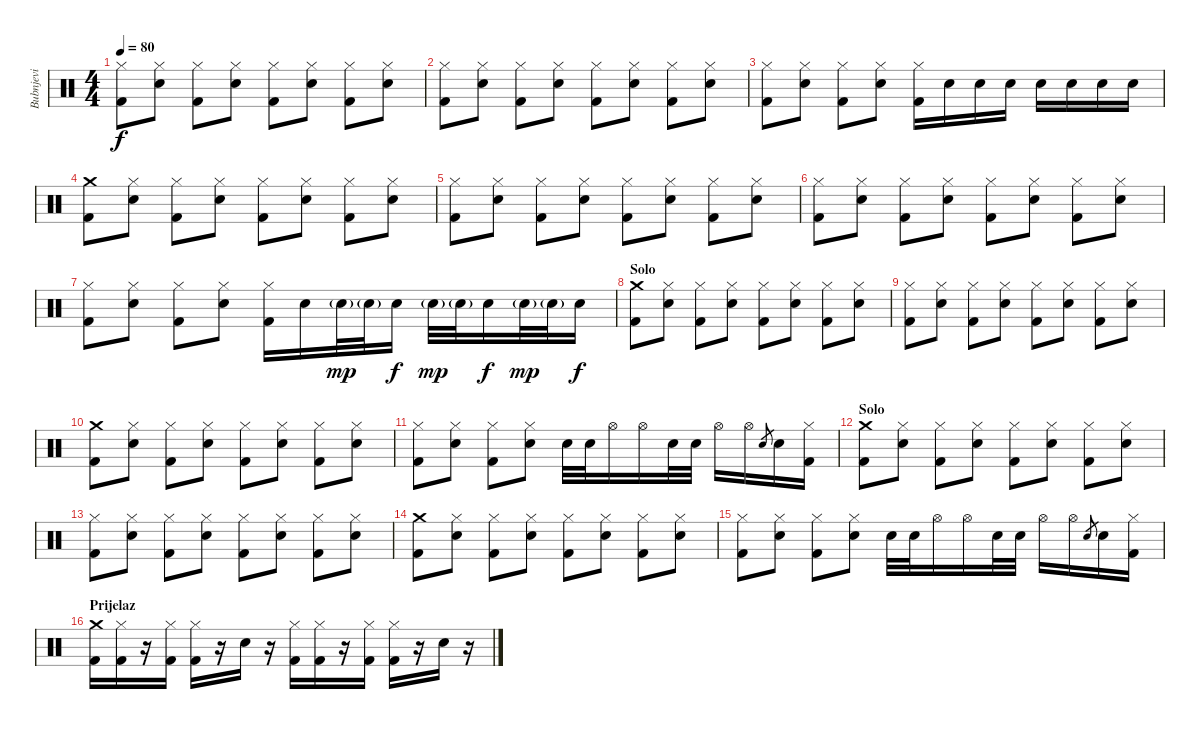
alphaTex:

\track ("Bubnjevi" "Bubnjevi") {instrument percussion}
\staff {score}
\articulation defaults
\ts (4 4)
\tempo 80
\clef neutral
\ks c
("Hi-Hat (closed)" "Kick (hit) 2").8{dy f} ("Electric Snare (hit)" "Hi-Hat (closed)").8 ("Hi-Hat (closed)" "Kick (hit) 2").8 ("Electric Snare (hit)" "Hi-Hat (closed)").8 ("Hi-Hat (closed)" "Kick (hit) 2").8 ("Electric Snare (hit)" "Hi-Hat (closed)").8 ("Hi-Hat (closed)" "Kick (hit) 2").8 ("Electric Snare (hit)" "Hi-Hat (closed)").8 |
("Hi-Hat (closed)" "Kick (hit) 2").8 ("Electric Snare (hit)" "Hi-Hat (closed)").8 ("Hi-Hat (closed)" "Kick (hit) 2").8 ("Electric Snare (hit)" "Hi-Hat (closed)").8 ("Hi-Hat (closed)" "Kick (hit) 2").8 ("Electric Snare (hit)" "Hi-Hat (closed)").8 ("Hi-Hat (closed)" "Kick (hit) 2").8 ("Electric Snare (hit)" "Hi-Hat (closed)").8 |
("Hi-Hat (closed)" "Kick (hit) 2").8 ("Electric Snare (hit)" "Hi-Hat (closed)").8 ("Hi-Hat (closed)" "Kick (hit) 2").8 ("Electric Snare (hit)" "Hi-Hat (closed)").8 ("Hi-Hat (closed)" "Kick (hit) 2").16 "Electric Snare (hit)".16 "Electric Snare (hit)".16 "Electric Snare (hit)".16 "Electric Snare (hit)".16 "Electric Snare (hit)".16 "Electric Snare (hit)".16 "Electric Snare (hit)".16 |
("Crash medium (hit)" "Kick (hit) 2").8 ("Electric Snare (hit)" "Hi-Hat (closed)").8 ("Hi-Hat (closed)" "Kick (hit) 2").8 ("Electric Snare (hit)" "Hi-Hat (closed)").8 ("Hi-Hat (closed)" "Kick (hit) 2").8 ("Electric Snare (hit)" "Hi-Hat (closed)").8 ("Hi-Hat (closed)" "Kick (hit) 2").8 ("Electric Snare (hit)" "Hi-Hat (closed)").8 |
("Hi-Hat (closed)" "Kick (hit) 2").8 ("Electric Snare (hit)" "Hi-Hat (closed)").8 ("Hi-Hat (closed)" "Kick (hit) 2").8 ("Electric Snare (hit)" "Hi-Hat (closed)").8 ("Hi-Hat (closed)" "Kick (hit) 2").8 ("Electric Snare (hit)" "Hi-Hat (closed)").8 ("Hi-Hat (closed)" "Kick (hit) 2").8 ("Electric Snare (hit)" "Hi-Hat (closed)").8 |
("Hi-Hat (closed)" "Kick (hit) 2").8 ("Electric Snare (hit)" "Hi-Hat (closed)").8 ("Hi-Hat (closed)" "Kick (hit) 2").8 ("Electric Snare (hit)" "Hi-Hat (closed)").8 ("Hi-Hat (closed)" "Kick (hit) 2").8 ("Electric Snare (hit)" "Hi-Hat (closed)").8 ("Hi-Hat (closed)" "Kick (hit) 2").8 ("Electric Snare (hit)" "Hi-Hat (closed)").8 |
("Hi-Hat (closed)" "Kick (hit) 2").8 ("Electric Snare (hit)" "Hi-Hat (closed)").8 ("Hi-Hat (closed)" "Kick (hit) 2").8 ("Electric Snare (hit)" "Hi-Hat (closed)").8 ("Hi-Hat (closed)" "Kick (hit) 2").16 "Electric Snare (hit)".16 "Electric Snare (hit)"{g}.32{dy mp} "Electric Snare (hit)"{g}.32 "Electric Snare (hit)".16{dy f} "Electric Snare (hit)"{g}.32{dy mp} "Electric Snare (hit)"{g}.32 "Electric Snare (hit)".16{dy f} "Electric Snare (hit)"{g}.32{dy mp} "Electric Snare (hit)"{g}.32 "Electric Snare (hit)".16{dy f} |
\section ("" "Solo")
("Crash medium (hit)" "Kick (hit) 2").8 ("Electric Snare (hit)" "Hi-Hat (closed)").8 ("Hi-Hat (closed)" "Kick (hit) 2").8 ("Electric Snare (hit)" "Hi-Hat (closed)").8 ("Hi-Hat (closed)" "Kick (hit) 2").8 ("Electric Snare (hit)" "Hi-Hat (closed)").8 ("Hi-Hat (closed)" "Kick (hit) 2").8 ("Electric Snare (hit)" "Hi-Hat (closed)").8 |
("Hi-Hat (closed)" "Kick (hit) 2").8 ("Electric Snare (hit)" "Hi-Hat (closed)").8 ("Hi-Hat (closed)" "Kick (hit) 2").8 ("Electric Snare (hit)" "Hi-Hat (closed)").8 ("Hi-Hat (closed)" "Kick (hit) 2").8 ("Electric Snare (hit)" "Hi-Hat (closed)").8 ("Hi-Hat (closed)" "Kick (hit) 2").8 ("Electric Snare (hit)" "Hi-Hat (closed)").8 |
("Crash medium (hit)" "Kick (hit) 2").8 ("Electric Snare (hit)" "Hi-Hat (closed)").8 ("Hi-Hat (closed)" "Kick (hit) 2").8 ("Electric Snare (hit)" "Hi-Hat (closed)").8 ("Hi-Hat (closed)" "Kick (hit) 2").8 ("Electric Snare (hit)" "Hi-Hat (closed)").8 ("Hi-Hat (closed)" "Kick (hit) 2").8 ("Electric Snare (hit)" "Hi-Hat (closed)").8 |
("Hi-Hat (closed)" "Kick (hit) 2").8 ("Electric Snare (hit)" "Hi-Hat (closed)").8 ("Hi-Hat (closed)" "Kick (hit) 2").8 ("Electric Snare (hit)" "Hi-Hat (closed)").8 "Electric Snare (hit)".32 "Electric Snare (hit)".32 "Hi-Hat (open)".16 "Hi-Hat (open)".16 "Electric Snare (hit)".32 "Electric Snare (hit)".32 "Hi-Hat (open)".16 "Hi-Hat (open)".16 "Electric Snare (hit)".8{gr} "Electric Snare (hit)".16 ("Hi-Hat (closed)" "Kick (hit) 2").16 |
\section ("" "Solo")
("Crash medium (hit)" "Kick (hit) 2").8 ("Electric Snare (hit)" "Hi-Hat (closed)").8 ("Hi-Hat (closed)" "Kick (hit) 2").8 ("Electric Snare (hit)" "Hi-Hat (closed)").8 ("Hi-Hat (closed)" "Kick (hit) 2").8 ("Electric Snare (hit)" "Hi-Hat (closed)").8 ("Hi-Hat (closed)" "Kick (hit) 2").8 ("Electric Snare (hit)" "Hi-Hat (closed)").8 |
("Hi-Hat (closed)" "Kick (hit) 2").8 ("Electric Snare (hit)" "Hi-Hat (closed)").8 ("Hi-Hat (closed)" "Kick (hit) 2").8 ("Electric Snare (hit)" "Hi-Hat (closed)").8 ("Hi-Hat (closed)" "Kick (hit) 2").8 ("Electric Snare (hit)" "Hi-Hat (closed)").8 ("Hi-Hat (closed)" "Kick (hit) 2").8 ("Electric Snare (hit)" "Hi-Hat (closed)").8 |
("Crash medium (hit)" "Kick (hit) 2").8 ("Electric Snare (hit)" "Hi-Hat (closed)").8 ("Hi-Hat (closed)" "Kick (hit) 2").8 ("Electric Snare (hit)" "Hi-Hat (closed)").8 ("Hi-Hat (closed)" "Kick (hit) 2").8 ("Electric Snare (hit)" "Hi-Hat (closed)").8 ("Hi-Hat (closed)" "Kick (hit) 2").8 ("Electric Snare (hit)" "Hi-Hat (closed)").8 |
("Hi-Hat (closed)" "Kick (hit) 2").8 ("Electric Snare (hit)" "Hi-Hat (closed)").8 ("Hi-Hat (closed)" "Kick (hit) 2").8 ("Electric Snare (hit)" "Hi-Hat (closed)").8 "Electric Snare (hit)".32 "Electric Snare (hit)".32 "Hi-Hat (open)".16 "Hi-Hat (open)".16 "Electric Snare (hit)".32 "Electric Snare (hit)".32 "Hi-Hat (open)".16 "Hi-Hat (open)".16 "Electric Snare (hit)".8{gr} "Electric Snare (hit)".16 ("Hi-Hat (closed)" "Kick (hit) 2").16 |
\section ("" "Prijelaz")
("Crash medium (hit)" "Kick (hit) 2").16 ("Hi-Hat (closed)" "Kick (hit) 2").16 r.16 ("Hi-Hat (closed)" "Kick (hit) 2").16 ("Hi-Hat (closed)" "Kick (hit) 2").16 r.16 "Electric Snare (hit)".16 r.16 ("Hi-Hat (closed)" "Kick (hit) 2").16 ("Hi-Hat (closed)" "Kick (hit) 2").16 r.16 ("Hi-Hat (closed)" "Kick (hit) 2").16 ("Hi-Hat (closed)" "Kick (hit) 2").16 r.16 "Electric Snare (hit)".16 r.16
